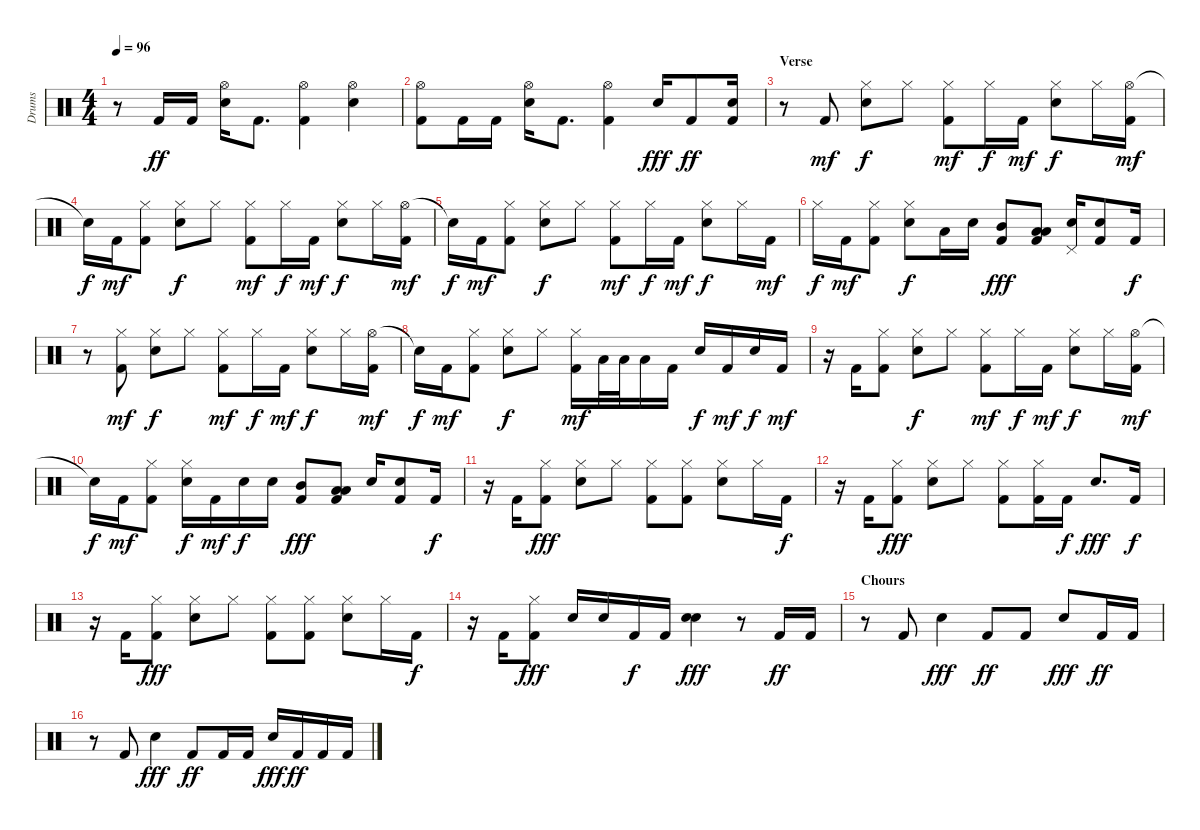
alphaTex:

\track ("Drums" "Drums") {instrument percussion}
\staff {score}
\articulation defaults
\ts (4 4)
\tempo 96
\clef neutral
\ks c
r.8{dy fff} "Kick (hit) 2".16{dy ff} "Kick (hit) 2".16 ("Snare (hit) 2" "Hi-Hat (open)").16 "Kick (hit) 2".8{d} ("Hi-Hat (open)" "Kick (hit) 2").4 ("Snare (hit) 2" "Hi-Hat (open)").4 |
("Hi-Hat (open)" "Kick (hit) 2").8 "Kick (hit) 2".16 "Kick (hit) 2".16 ("Snare (hit) 2" "Hi-Hat (open)").16 "Kick (hit) 2".8{d} ("Hi-Hat (open)" "Kick (hit) 2").4 "Snare (hit) 2".16{dy fff} "Kick (hit) 2".8{dy ff} ("Snare (hit) 2" "Kick (hit) 2").16 |
\section ("" "Verse")
r.8 "Kick (hit) 2".8{dy mf} ("Snare (hit) 2" "Hi-Hat (closed)").8{dy f} "Hi-Hat (closed)".8 ("Hi-Hat (closed)" "Kick (hit) 2").8{dy mf} "Hi-Hat (closed)".16{dy f} "Kick (hit) 2".16{dy mf} ("Snare (hit) 2" "Hi-Hat (closed)").8{dy f} "Hi-Hat (closed)".16 ("Hi-Hat (open)" "Kick (hit) 2").16{dy mf} |
"Snare (hit)"{t}.16{dy f} "Kick (hit) 2".16{dy mf} ("Hi-Hat (closed)" "Kick (hit) 2").8 ("Snare (hit) 2" "Hi-Hat (closed)").8{dy f} "Hi-Hat (closed)".8 ("Hi-Hat (closed)" "Kick (hit) 2").8{dy mf} "Hi-Hat (closed)".16{dy f} "Kick (hit) 2".16{dy mf} ("Snare (hit) 2" "Hi-Hat (closed)").8{dy f} "Hi-Hat (closed)".16 ("Hi-Hat (open)" "Kick (hit) 2").16{dy mf} |
"Snare (hit)"{t}.16{dy f} "Kick (hit) 2".16{dy mf} ("Hi-Hat (closed)" "Kick (hit) 2").8 ("Snare (hit) 2" "Hi-Hat (closed)").8{dy f} "Hi-Hat (closed)".8 ("Hi-Hat (closed)" "Kick (hit) 2").8{dy mf} "Hi-Hat (closed)".16{dy f} "Kick (hit) 2".16{dy mf} ("Snare (hit) 2" "Hi-Hat (closed)").8{dy f} "Hi-Hat (closed)".16 "Kick (hit) 2".16{dy mf} |
"Hi-Hat (closed)".16{dy f} "Kick (hit) 2".16{dy mf} ("Hi-Hat (closed)" "Kick (hit) 2").8 ("Snare (hit) 2" "Hi-Hat (closed)").8{dy f} "Low Tom (hit)".16 "Snare (hit) 2".16 ("Mid Tom (hit)" "Kick (hit) 2").8{dy fff} ("Low Floor Tom (hit)" "Low Tom (hit)" "Kick (hit) 2").8 ("Snare (hit) 2" "Pedal Hi-Hat (hit)").16 ("Snare (hit) 2" "Kick (hit) 2").8 "Kick (hit) 2".16{dy f} |
r.8 ("Hi-Hat (closed)" "Kick (hit) 2").8{dy mf} ("Snare (hit) 2" "Hi-Hat (closed)").8{dy f} "Hi-Hat (closed)".8 ("Hi-Hat (closed)" "Kick (hit) 2").8{dy mf} "Hi-Hat (closed)".16{dy f} "Kick (hit) 2".16{dy mf} ("Snare (hit) 2" "Hi-Hat (closed)").8{dy f} "Hi-Hat (closed)".16 ("Hi-Hat (open)" "Kick (hit) 2").16{dy mf} |
"Snare (hit)"{t}.16{dy f} "Kick (hit) 2".16{dy mf} ("Hi-Hat (closed)" "Kick (hit) 2").8 ("Snare (hit) 2" "Hi-Hat (closed)").8{dy f} "Hi-Hat (closed)".8 ("Hi-Hat (closed)" "Kick (hit) 2").16{dy mf} "Low Tom (hit)".32 "Low Tom (hit)".32 "Low Floor Tom (hit)".16 "Kick (hit) 2".16 "Snare (hit) 2".16{dy f} "Kick (hit) 2".16{dy mf} "Snare (hit) 2".16{dy f} "Kick (hit) 2".16{dy mf} |
r.16 "Kick (hit) 2".16 ("Hi-Hat (closed)" "Kick (hit) 2").8 ("Snare (hit) 2" "Hi-Hat (closed)").8{dy f} "Hi-Hat (closed)".8 ("Hi-Hat (closed)" "Kick (hit) 2").8{dy mf} "Hi-Hat (closed)".16{dy f} "Kick (hit) 2".16{dy mf} ("Snare (hit) 2" "Hi-Hat (closed)").8{dy f} "Hi-Hat (closed)".16 ("Hi-Hat (open)" "Kick (hit) 2").16{dy mf} |
"Snare (hit)"{t}.16{dy f} "Kick (hit) 2".16{dy mf} ("Hi-Hat (closed)" "Kick (hit) 2").8 ("Snare (hit) 2" "Hi-Hat (closed)").16{dy f} "Kick (hit) 2".16{dy mf} "Snare (hit) 2".16{dy f} "Snare (hit) 2".16 ("Mid Tom (hit)" "Kick (hit) 2").8{dy fff} ("Low Floor Tom (hit)" "Low Tom (hit)" "Kick (hit) 2").8 "Snare (hit) 2".16 ("Snare (hit) 2" "Kick (hit) 2").8 "Kick (hit) 2".16{dy f} |
r.16 "Kick (hit) 2".16 ("Hi-Hat (closed)" "Kick (hit) 2").8{dy fff} ("Snare (hit) 2" "Hi-Hat (closed)").8 "Hi-Hat (closed)".8 ("Hi-Hat (closed)" "Kick (hit) 2").8 ("Hi-Hat (closed)" "Kick (hit) 2").8 ("Snare (hit) 2" "Hi-Hat (closed)").8 "Hi-Hat (closed)".16 "Kick (hit) 2".16{dy f} |
r.16 "Kick (hit) 2".16 ("Hi-Hat (closed)" "Kick (hit) 2").8{dy fff} ("Snare (hit) 2" "Hi-Hat (closed)").8 "Hi-Hat (closed)".8 ("Hi-Hat (closed)" "Kick (hit) 2").8 ("Hi-Hat (closed)" "Kick (hit) 2").16 "Kick (hit) 2".16{dy f} "Snare (hit) 2".8{d dy fff} "Kick (hit) 2".16{dy f} |
r.16 "Kick (hit) 2".16 ("Hi-Hat (closed)" "Kick (hit) 2").8{dy fff} ("Snare (hit) 2" "Hi-Hat (closed)").8 "Hi-Hat (closed)".8 ("Hi-Hat (closed)" "Kick (hit) 2").8 ("Hi-Hat (closed)" "Kick (hit) 2").8 ("Snare (hit) 2" "Hi-Hat (closed)").8 "Hi-Hat (closed)".16 "Kick (hit) 2".16{dy f} |
r.16 "Kick (hit) 2".16 ("Hi-Hat (closed)" "Kick (hit) 2").8{dy fff} "Snare (hit) 2".16 "Snare (hit) 2".16 "Kick (hit) 2".16{dy f} "Kick (hit) 2".16 ("Snare (hit) 2" "Snare (hit) 2").4{dy fff} r.8 "Kick (hit) 2".16{dy ff} "Kick (hit) 2".16 |
\section ("" "Chours")
r.8 "Kick (hit) 2".8 "Snare (hit) 2".4{dy fff} "Kick (hit) 2".8{dy ff} "Kick (hit) 2".8 "Snare (hit) 2".8{dy fff} "Kick (hit) 2".16{dy ff} "Kick (hit) 2".16 |
r.8 "Kick (hit) 2".8 "Snare (hit) 2".4{dy fff} "Kick (hit) 2".8{dy ff} "Kick (hit) 2".16 "Kick (hit) 2".16 "Snare (hit) 2".16{dy fff} "Kick (hit) 2".16{dy ff} "Kick (hit) 2".16 "Kick (hit) 2".16
